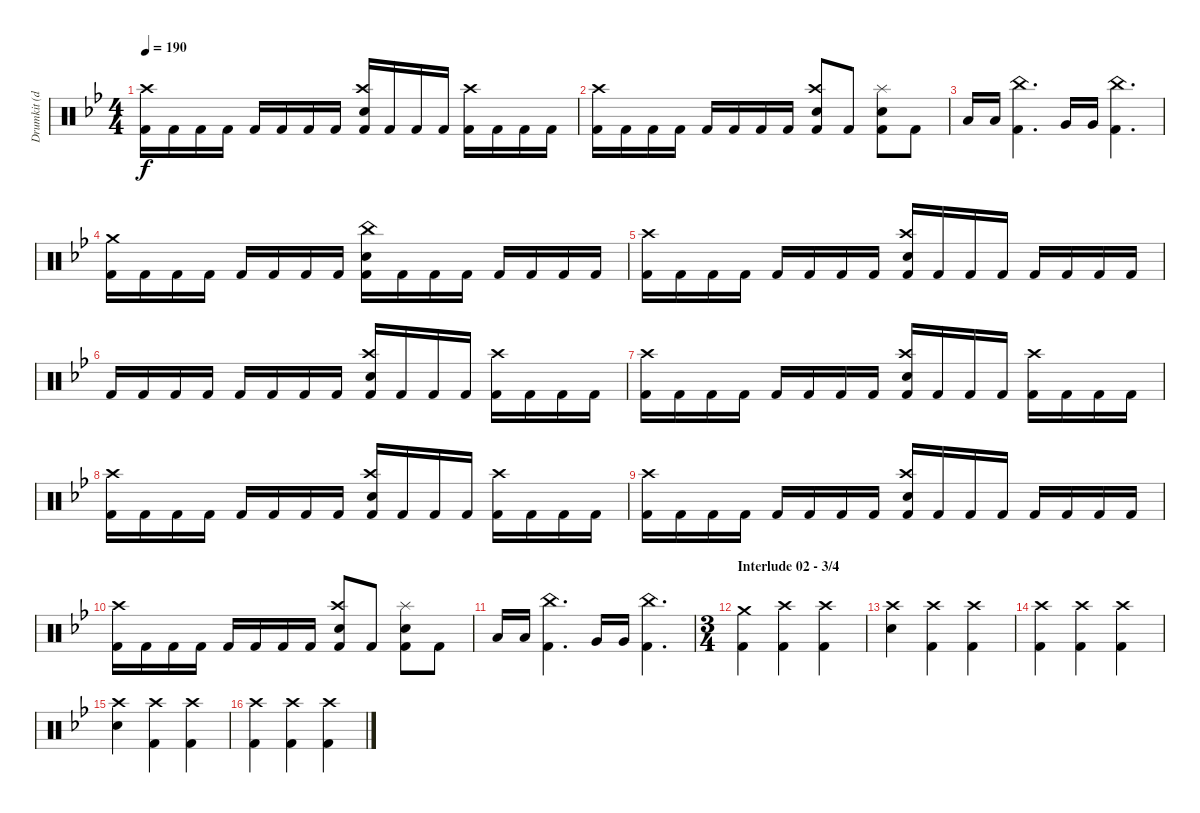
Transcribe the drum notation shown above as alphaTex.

\track ("Drumkit (don't unmute)" "Drumkit (d") {instrument percussion}
\staff {score}
\articulation defaults
\ts (4 4)
\tempo 190
\clef neutral
\ks bb
("Kick (hit) 2" "Crash high (hit)").16{dy f} "Kick (hit) 2".16 "Kick (hit) 2".16 "Kick (hit) 2".16 "Kick (hit) 2".16 "Kick (hit) 2".16 "Kick (hit) 2".16 "Kick (hit) 2".16 ("Kick (hit) 2" "Snare (hit) 2" "Crash high (hit)").16 "Kick (hit) 2".16 "Kick (hit) 2".16 "Kick (hit) 2".16 ("Kick (hit) 2" "Crash high (hit)").16 "Kick (hit) 2".16 "Kick (hit) 2".16 "Kick (hit) 2".16 |
("Kick (hit) 2" "Crash high (hit)").16 "Kick (hit) 2".16 "Kick (hit) 2".16 "Kick (hit) 2".16 "Kick (hit) 2".16 "Kick (hit) 2".16 "Kick (hit) 2".16 "Kick (hit) 2".16 ("Kick (hit) 2" "Snare (hit) 2" "Crash high (hit)").8 "Kick (hit) 2".8 ("Kick (hit) 2" "Splash (hit)" "Snare (hit) 2").8 "Kick (hit) 2".8 |
"Low Tom (hit)".16 "Low Tom (hit)".16 ("Kick (hit) 2" "China (hit)").4{d} "Very Low Tom (hit)".16 "Very Low Tom (hit)".16 ("Kick (hit) 2" "China (hit)").4{d} |
("Kick (hit) 2" "Crash medium (hit)").16 "Kick (hit) 2".16 "Kick (hit) 2".16 "Kick (hit) 2".16 "Kick (hit) 2".16 "Kick (hit) 2".16 "Kick (hit) 2".16 "Kick (hit) 2".16 ("Kick (hit) 2" "Snare (hit) 2" "China (hit)").16 "Kick (hit) 2".16 "Kick (hit) 2".16 "Kick (hit) 2".16 "Kick (hit) 2".16 "Kick (hit) 2".16 "Kick (hit) 2".16 "Kick (hit) 2".16 |
("Kick (hit) 2" "Crash high (hit)").16 "Kick (hit) 2".16 "Kick (hit) 2".16 "Kick (hit) 2".16 "Kick (hit) 2".16 "Kick (hit) 2".16 "Kick (hit) 2".16 "Kick (hit) 2".16 ("Kick (hit) 2" "Snare (hit) 2" "Crash high (hit)").16 "Kick (hit) 2".16 "Kick (hit) 2".16 "Kick (hit) 2".16 "Kick (hit) 2".16 "Kick (hit) 2".16 "Kick (hit) 2".16 "Kick (hit) 2".16 |
"Kick (hit) 2".16 "Kick (hit) 2".16 "Kick (hit) 2".16 "Kick (hit) 2".16 "Kick (hit) 2".16 "Kick (hit) 2".16 "Kick (hit) 2".16 "Kick (hit) 2".16 ("Kick (hit) 2" "Snare (hit) 2" "Crash high (hit)").16 "Kick (hit) 2".16 "Kick (hit) 2".16 "Kick (hit) 2".16 ("Kick (hit) 2" "Crash high (hit)").16 "Kick (hit) 2".16 "Kick (hit) 2".16 "Kick (hit) 2".16 |
("Kick (hit) 2" "Crash high (hit)").16 "Kick (hit) 2".16 "Kick (hit) 2".16 "Kick (hit) 2".16 "Kick (hit) 2".16 "Kick (hit) 2".16 "Kick (hit) 2".16 "Kick (hit) 2".16 ("Kick (hit) 2" "Snare (hit) 2" "Crash high (hit)").16 "Kick (hit) 2".16 "Kick (hit) 2".16 "Kick (hit) 2".16 ("Kick (hit) 2" "Crash high (hit)").16 "Kick (hit) 2".16 "Kick (hit) 2".16 "Kick (hit) 2".16 |
("Kick (hit) 2" "Crash high (hit)").16 "Kick (hit) 2".16 "Kick (hit) 2".16 "Kick (hit) 2".16 "Kick (hit) 2".16 "Kick (hit) 2".16 "Kick (hit) 2".16 "Kick (hit) 2".16 ("Kick (hit) 2" "Snare (hit) 2" "Crash high (hit)").16 "Kick (hit) 2".16 "Kick (hit) 2".16 "Kick (hit) 2".16 ("Kick (hit) 2" "Crash high (hit)").16 "Kick (hit) 2".16 "Kick (hit) 2".16 "Kick (hit) 2".16 |
("Kick (hit) 2" "Crash high (hit)").16 "Kick (hit) 2".16 "Kick (hit) 2".16 "Kick (hit) 2".16 "Kick (hit) 2".16 "Kick (hit) 2".16 "Kick (hit) 2".16 "Kick (hit) 2".16 ("Kick (hit) 2" "Snare (hit) 2" "Crash high (hit)").16 "Kick (hit) 2".16 "Kick (hit) 2".16 "Kick (hit) 2".16 "Kick (hit) 2".16 "Kick (hit) 2".16 "Kick (hit) 2".16 "Kick (hit) 2".16 |
("Kick (hit) 2" "Crash high (hit)").16 "Kick (hit) 2".16 "Kick (hit) 2".16 "Kick (hit) 2".16 "Kick (hit) 2".16 "Kick (hit) 2".16 "Kick (hit) 2".16 "Kick (hit) 2".16 ("Kick (hit) 2" "Snare (hit) 2" "Crash high (hit)").8 "Kick (hit) 2".8 ("Kick (hit) 2" "Splash (hit)" "Snare (hit) 2").8 "Kick (hit) 2".8 |
"Low Tom (hit)".16 "Low Tom (hit)".16 ("Kick (hit) 2" "China (hit)").4{d} "Very Low Tom (hit)".16 "Very Low Tom (hit)".16 ("Kick (hit) 2" "China (hit)").4{d} |
\ts (3 4)
\section ("" "Interlude 02 - 3/4")
("Kick (hit) 2" "Crash medium (hit)").4 ("Kick (hit) 2" "Crash high (hit)").4 ("Kick (hit) 2" "Crash high (hit)").4 |
("Snare (hit) 2" "Crash high (hit)").4 ("Kick (hit) 2" "Crash high (hit)").4 ("Kick (hit) 2" "Crash high (hit)").4 |
("Kick (hit) 2" "Crash high (hit)").4 ("Kick (hit) 2" "Crash high (hit)").4 ("Kick (hit) 2" "Crash high (hit)").4 |
("Snare (hit) 2" "Crash high (hit)").4 ("Kick (hit) 2" "Crash high (hit)").4 ("Kick (hit) 2" "Crash high (hit)").4 |
("Kick (hit) 2" "Crash high (hit)").4 ("Kick (hit) 2" "Crash high (hit)").4 ("Kick (hit) 2" "Crash high (hit)").4
